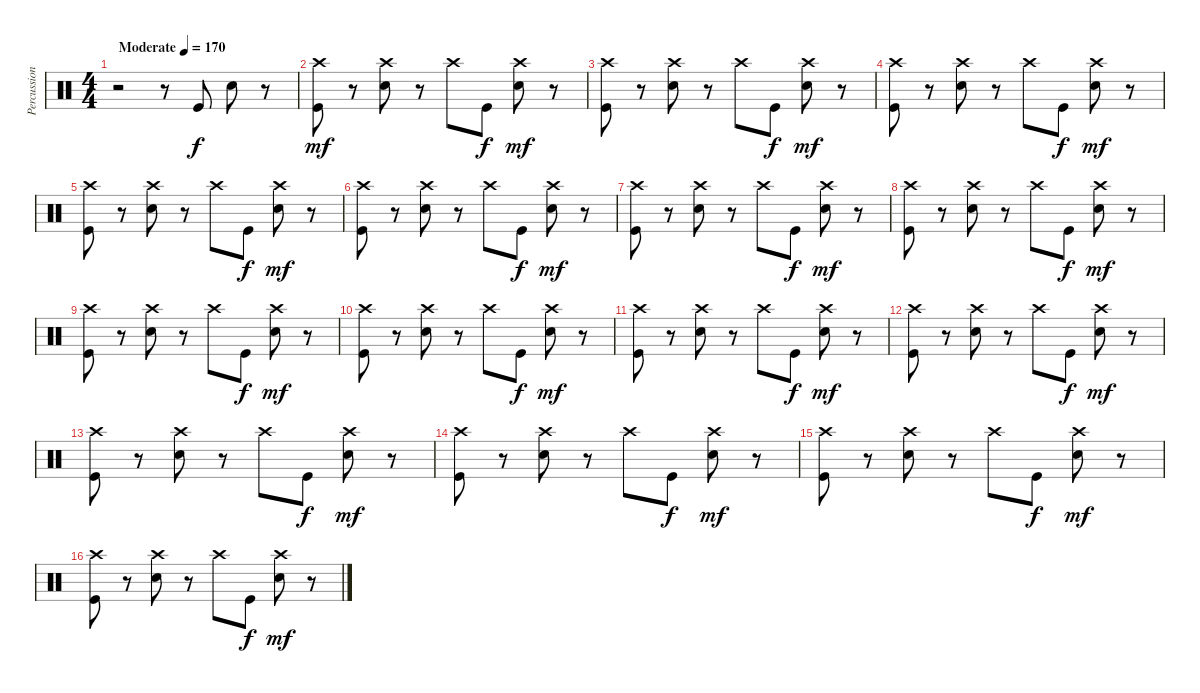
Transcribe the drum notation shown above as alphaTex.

\track ("Percussion" "Percussion") {instrument percussion}
\staff {score}
\articulation defaults
\ts (4 4)
\tempo (170 "Moderate")
\clef neutral
\ks c
r.2{dy f} r.8 "Kick (hit)".8 "Snare (hit) 2".8 r.8 |
("Kick (hit)" "Crash high (hit)").8{dy mf} r.8 ("Snare (hit) 2" "Crash high (hit)").8 r.8 "Crash high (hit)".8 "Kick (hit)".8{dy f} ("Snare (hit) 2" "Crash high (hit)").8{dy mf} r.8 |
("Kick (hit)" "Crash high (hit)").8 r.8 ("Snare (hit) 2" "Crash high (hit)").8 r.8 "Crash high (hit)".8 "Kick (hit)".8{dy f} ("Snare (hit) 2" "Crash high (hit)").8{dy mf} r.8 |
("Kick (hit)" "Crash high (hit)").8 r.8 ("Snare (hit) 2" "Crash high (hit)").8 r.8 "Crash high (hit)".8 "Kick (hit)".8{dy f} ("Snare (hit) 2" "Crash high (hit)").8{dy mf} r.8 |
("Kick (hit)" "Crash high (hit)").8 r.8 ("Snare (hit) 2" "Crash high (hit)").8 r.8 "Crash high (hit)".8 "Kick (hit)".8{dy f} ("Snare (hit) 2" "Crash high (hit)").8{dy mf} r.8 |
("Kick (hit)" "Crash high (hit)").8 r.8 ("Snare (hit) 2" "Crash high (hit)").8 r.8 "Crash high (hit)".8 "Kick (hit)".8{dy f} ("Snare (hit) 2" "Crash high (hit)").8{dy mf} r.8 |
("Kick (hit)" "Crash high (hit)").8 r.8 ("Snare (hit) 2" "Crash high (hit)").8 r.8 "Crash high (hit)".8 "Kick (hit)".8{dy f} ("Snare (hit) 2" "Crash high (hit)").8{dy mf} r.8 |
("Kick (hit)" "Crash high (hit)").8 r.8 ("Snare (hit) 2" "Crash high (hit)").8 r.8 "Crash high (hit)".8 "Kick (hit)".8{dy f} ("Snare (hit) 2" "Crash high (hit)").8{dy mf} r.8 |
("Kick (hit)" "Crash high (hit)").8 r.8 ("Snare (hit) 2" "Crash high (hit)").8 r.8 "Crash high (hit)".8 "Kick (hit)".8{dy f} ("Snare (hit) 2" "Crash high (hit)").8{dy mf} r.8 |
("Kick (hit)" "Crash high (hit)").8 r.8 ("Snare (hit) 2" "Crash high (hit)").8 r.8 "Crash high (hit)".8 "Kick (hit)".8{dy f} ("Snare (hit) 2" "Crash high (hit)").8{dy mf} r.8 |
("Kick (hit)" "Crash high (hit)").8 r.8 ("Snare (hit) 2" "Crash high (hit)").8 r.8 "Crash high (hit)".8 "Kick (hit)".8{dy f} ("Snare (hit) 2" "Crash high (hit)").8{dy mf} r.8 |
("Kick (hit)" "Crash high (hit)").8 r.8 ("Snare (hit) 2" "Crash high (hit)").8 r.8 "Crash high (hit)".8 "Kick (hit)".8{dy f} ("Snare (hit) 2" "Crash high (hit)").8{dy mf} r.8 |
("Kick (hit)" "Crash high (hit)").8 r.8 ("Snare (hit) 2" "Crash high (hit)").8 r.8 "Crash high (hit)".8 "Kick (hit)".8{dy f} ("Snare (hit) 2" "Crash high (hit)").8{dy mf} r.8 |
("Kick (hit)" "Crash high (hit)").8 r.8 ("Snare (hit) 2" "Crash high (hit)").8 r.8 "Crash high (hit)".8 "Kick (hit)".8{dy f} ("Snare (hit) 2" "Crash high (hit)").8{dy mf} r.8 |
("Kick (hit)" "Crash high (hit)").8 r.8 ("Snare (hit) 2" "Crash high (hit)").8 r.8 "Crash high (hit)".8 "Kick (hit)".8{dy f} ("Snare (hit) 2" "Crash high (hit)").8{dy mf} r.8 |
("Kick (hit)" "Crash high (hit)").8 r.8 ("Snare (hit) 2" "Crash high (hit)").8 r.8 "Crash high (hit)".8 "Kick (hit)".8{dy f} ("Snare (hit) 2" "Crash high (hit)").8{dy mf} r.8
